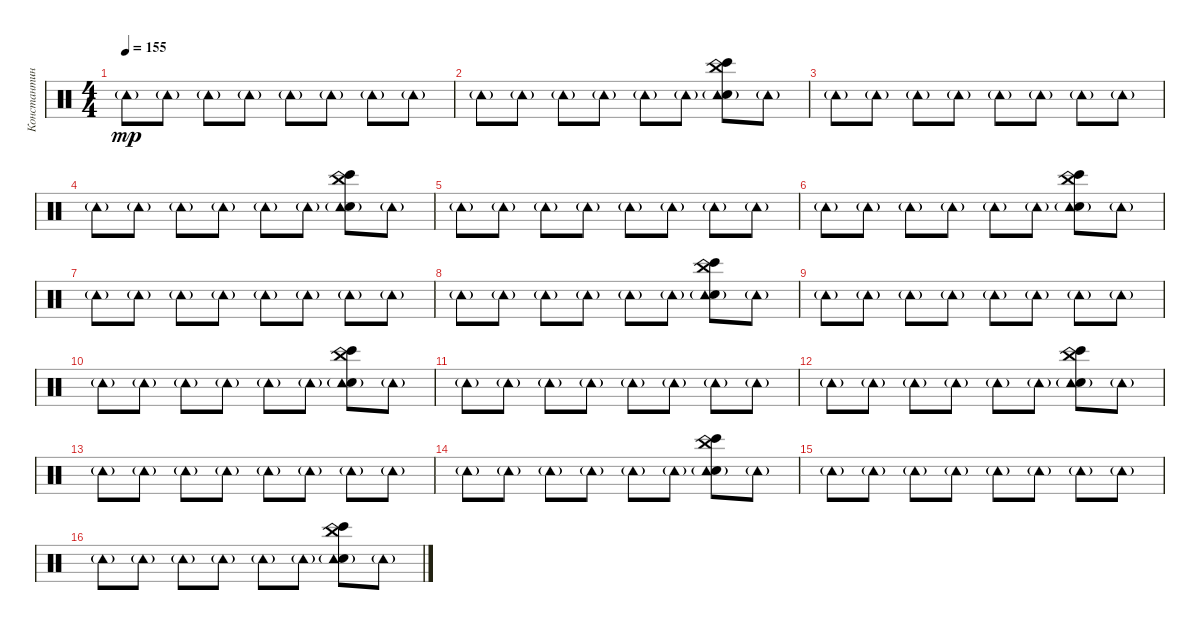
\track ("Константин Бекрев" "Константин") {instrument percussion}
\staff {score}
\articulation defaults
\ts (4 4)
\tempo 155
\clef neutral
\ks c "Tambourine (hit)"{g}.8{dy mp} "Tambourine (hit)"{g}.8 "Tambourine (hit)"{g}.8 "Tambourine (hit)"{g}.8 "Tambourine (hit)"{g}.8 "Tambourine (hit)"{g}.8 "Tambourine (hit)"{g}.8 "Tambourine (hit)"{g}.8
|
"Tambourine (hit)"{g}.8 "Tambourine (hit)"{g}.8 "Tambourine (hit)"{g}.8 "Tambourine (hit)"{g}.8 "Tambourine (hit)"{g}.8 "Tambourine (hit)"{g}.8 ("China (hit)" "Hand Clap (hit)" "Bongo High (hit)" "Tambourine (hit)"{g}).8 "Tambourine (hit)"{g}.8 |
"Tambourine (hit)"{g}.8 "Tambourine (hit)"{g}.8 "Tambourine (hit)"{g}.8 "Tambourine (hit)"{g}.8 "Tambourine (hit)"{g}.8 "Tambourine (hit)"{g}.8 "Tambourine (hit)"{g}.8 "Tambourine (hit)"{g}.8 |
"Tambourine (hit)"{g}.8 "Tambourine (hit)"{g}.8 "Tambourine (hit)"{g}.8 "Tambourine (hit)"{g}.8 "Tambourine (hit)"{g}.8 "Tambourine (hit)"{g}.8 ("China (hit)" "Hand Clap (hit)" "Bongo High (hit)" "Tambourine (hit)"{g}).8 "Tambourine (hit)"{g}.8 |
"Tambourine (hit)"{g}.8 "Tambourine (hit)"{g}.8 "Tambourine (hit)"{g}.8 "Tambourine (hit)"{g}.8 "Tambourine (hit)"{g}.8 "Tambourine (hit)"{g}.8 "Tambourine (hit)"{g}.8 "Tambourine (hit)"{g}.8 |
"Tambourine (hit)"{g}.8 "Tambourine (hit)"{g}.8 "Tambourine (hit)"{g}.8 "Tambourine (hit)"{g}.8 "Tambourine (hit)"{g}.8 "Tambourine (hit)"{g}.8 ("China (hit)" "Hand Clap (hit)" "Bongo High (hit)" "Tambourine (hit)"{g}).8 "Tambourine (hit)"{g}.8 |
"Tambourine (hit)"{g}.8 "Tambourine (hit)"{g}.8 "Tambourine (hit)"{g}.8 "Tambourine (hit)"{g}.8 "Tambourine (hit)"{g}.8 "Tambourine (hit)"{g}.8 "Tambourine (hit)"{g}.8 "Tambourine (hit)"{g}.8 |
"Tambourine (hit)"{g}.8 "Tambourine (hit)"{g}.8 "Tambourine (hit)"{g}.8 "Tambourine (hit)"{g}.8 "Tambourine (hit)"{g}.8 "Tambourine (hit)"{g}.8 ("China (hit)" "Hand Clap (hit)" "Bongo High (hit)" "Tambourine (hit)"{g}).8 "Tambourine (hit)"{g}.8 |
"Tambourine (hit)"{g}.8 "Tambourine (hit)"{g}.8 "Tambourine (hit)"{g}.8 "Tambourine (hit)"{g}.8 "Tambourine (hit)"{g}.8 "Tambourine (hit)"{g}.8 "Tambourine (hit)"{g}.8 "Tambourine (hit)"{g}.8 |
"Tambourine (hit)"{g}.8 "Tambourine (hit)"{g}.8 "Tambourine (hit)"{g}.8 "Tambourine (hit)"{g}.8 "Tambourine (hit)"{g}.8 "Tambourine (hit)"{g}.8 ("China (hit)" "Hand Clap (hit)" "Bongo High (hit)" "Tambourine (hit)"{g}).8 "Tambourine (hit)"{g}.8 |
"Tambourine (hit)"{g}.8 "Tambourine (hit)"{g}.8 "Tambourine (hit)"{g}.8 "Tambourine (hit)"{g}.8 "Tambourine (hit)"{g}.8 "Tambourine (hit)"{g}.8 "Tambourine (hit)"{g}.8 "Tambourine (hit)"{g}.8 |
"Tambourine (hit)"{g}.8 "Tambourine (hit)"{g}.8 "Tambourine (hit)"{g}.8 "Tambourine (hit)"{g}.8 "Tambourine (hit)"{g}.8 "Tambourine (hit)"{g}.8 ("China (hit)" "Hand Clap (hit)" "Bongo High (hit)" "Tambourine (hit)"{g}).8 "Tambourine (hit)"{g}.8 |
"Tambourine (hit)"{g}.8 "Tambourine (hit)"{g}.8 "Tambourine (hit)"{g}.8 "Tambourine (hit)"{g}.8 "Tambourine (hit)"{g}.8 "Tambourine (hit)"{g}.8 "Tambourine (hit)"{g}.8 "Tambourine (hit)"{g}.8 |
"Tambourine (hit)"{g}.8 "Tambourine (hit)"{g}.8 "Tambourine (hit)"{g}.8 "Tambourine (hit)"{g}.8 "Tambourine (hit)"{g}.8 "Tambourine (hit)"{g}.8 ("China (hit)" "Hand Clap (hit)" "Bongo High (hit)" "Tambourine (hit)"{g}).8 "Tambourine (hit)"{g}.8 |
"Tambourine (hit)"{g}.8 "Tambourine (hit)"{g}.8 "Tambourine (hit)"{g}.8 "Tambourine (hit)"{g}.8 "Tambourine (hit)"{g}.8 "Tambourine (hit)"{g}.8 "Tambourine (hit)"{g}.8 "Tambourine (hit)"{g}.8 |
"Tambourine (hit)"{g}.8 "Tambourine (hit)"{g}.8 "Tambourine (hit)"{g}.8 "Tambourine (hit)"{g}.8 "Tambourine (hit)"{g}.8 "Tambourine (hit)"{g}.8 ("China (hit)" "Hand Clap (hit)" "Bongo High (hit)" "Tambourine (hit)"{g}).8 "Tambourine (hit)"{g}.8
